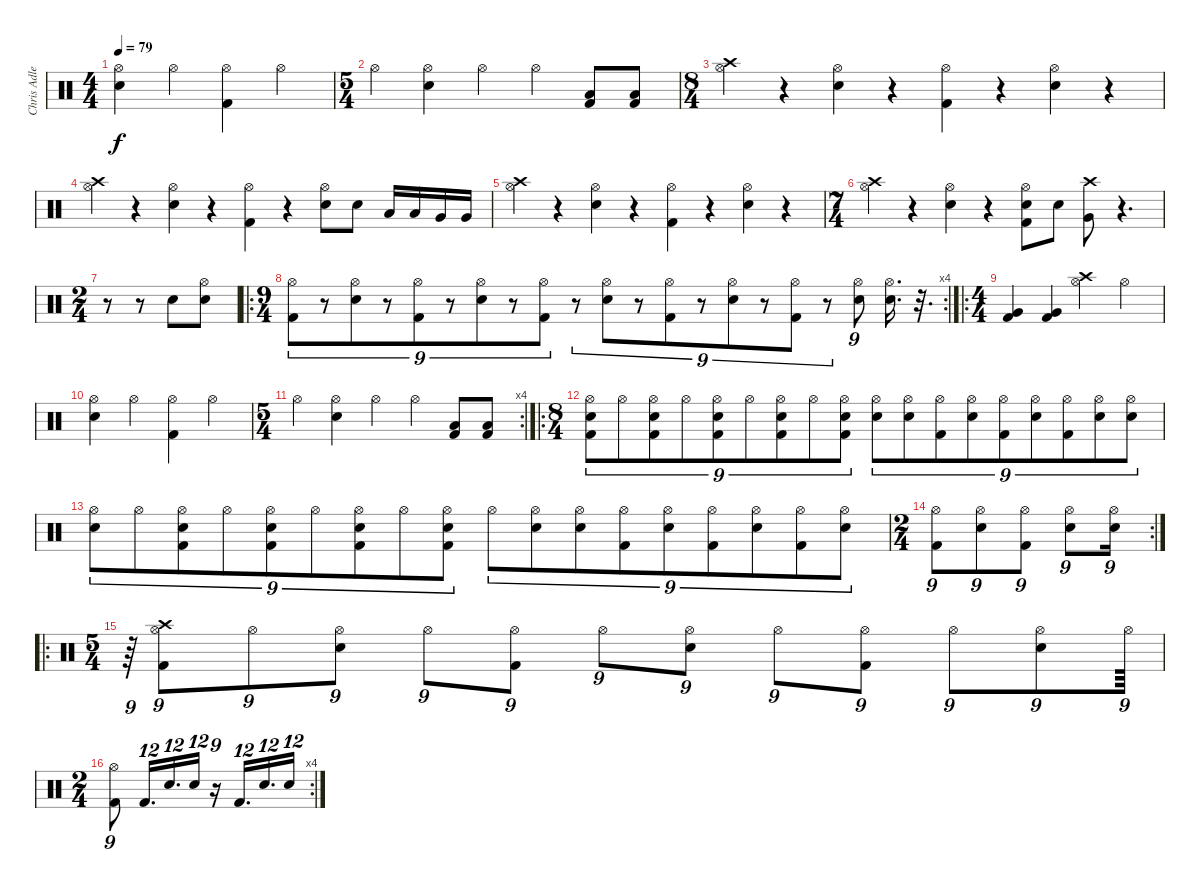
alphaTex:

\track ("Chris Adler" "Chris Adle") {instrument percussion}
\staff {score}
\articulation defaults
\ts (4 4)
\tempo 79
\clef neutral
\ks c
("Hi-Hat (open)" "Electric Snare (hit)").4{dy f} "Hi-Hat (open)".4 ("Hi-Hat (open)" "Kick (hit) 2").4 "Hi-Hat (open)".4 |
\ts (5 4)
"Hi-Hat (open)".4 ("Hi-Hat (open)" "Electric Snare (hit)").4 "Hi-Hat (open)".4 "Hi-Hat (open)".4 ("Low Floor Tom (hit)" "Kick (hit) 2").8 ("Low Floor Tom (hit)" "Kick (hit) 2").8 |
\ts (8 4)
("Hi-Hat (open)" "Crash high (hit)").4 r.4 ("Hi-Hat (open)" "Electric Snare (hit)").4 r.4 ("Hi-Hat (open)" "Kick (hit) 2").4 r.4 ("Hi-Hat (open)" "Electric Snare (hit)").4 r.4 |
("Hi-Hat (open)" "Crash high (hit)").4 r.4 ("Hi-Hat (open)" "Electric Snare (hit)").4 r.4 ("Hi-Hat (open)" "Kick (hit) 2").4 r.4 ("Hi-Hat (open)" "Electric Snare (hit)").8 "Electric Snare (hit)".8 "Low Floor Tom (hit)".16 "Low Floor Tom (hit)".16 "Very Low Tom (hit)".16 "Very Low Tom (hit)".16 |
("Hi-Hat (open)" "Crash high (hit)").4 r.4 ("Hi-Hat (open)" "Electric Snare (hit)").4 r.4 ("Hi-Hat (open)" "Kick (hit) 2").4 r.4 ("Hi-Hat (open)" "Electric Snare (hit)").4 r.4 |
\ts (7 4)
("Hi-Hat (open)" "Crash high (hit)").4 r.4 ("Hi-Hat (open)" "Electric Snare (hit)").4 r.4 ("Hi-Hat (open)" "Electric Snare (hit)" "Kick (hit) 2").8 "Electric Snare (hit)".8 ("Crash high (hit)" "Very Low Tom (hit)").8 r.4{d} |
\ts (2 4)
r.8 r.8 "Electric Snare (hit)".8 ("Hi-Hat (open)" "Electric Snare (hit)").8 |
\ro
\rc 4
\ts (9 4)
("Hi-Hat (open)" "Kick (hit) 2").8{tu (9 8)} r.8{tu (9 8)} ("Hi-Hat (open)" "Electric Snare (hit)").8{tu (9 8)} r.8{tu (9 8)} ("Hi-Hat (open)" "Kick (hit) 2").8{tu (9 8)} r.8{tu (9 8)} ("Hi-Hat (open)" "Electric Snare (hit)").8{tu (9 8)} r.8{tu (9 8)} ("Hi-Hat (open)" "Kick (hit) 2").8{tu (9 8)} r.8{tu (9 8)} ("Hi-Hat (open)" "Electric Snare (hit)").8{tu (9 8)} r.8{tu (9 8)} ("Hi-Hat (open)" "Kick (hit) 2").8{tu (9 8)} r.8{tu (9 8)} ("Hi-Hat (open)" "Electric Snare (hit)").8{tu (9 8)} r.8{tu (9 8)} ("Hi-Hat (open)" "Kick (hit) 2").8{tu (9 8)} r.8{tu (9 8)} ("Hi-Hat (open)" "Electric Snare (hit)").8{tu (9 8)} ("Hi-Hat (open)" "Electric Snare (hit)").16{d} r.32{d} |
\ro
\ts (4 4)
("Very Low Tom (hit)" "Kick (hit) 2").4 ("Very Low Tom (hit)" "Kick (hit) 2").4 ("Hi-Hat (open)" "Crash high (hit)").4 "Hi-Hat (open)".4 |
("Hi-Hat (open)" "Electric Snare (hit)").4 "Hi-Hat (open)".4 ("Hi-Hat (open)" "Kick (hit) 2").4 "Hi-Hat (open)".4 |
\rc 4
\ts (5 4)
"Hi-Hat (open)".4 ("Hi-Hat (open)" "Electric Snare (hit)").4 "Hi-Hat (open)".4 "Hi-Hat (open)".4 ("Low Floor Tom (hit)" "Kick (hit) 2").8 ("Low Floor Tom (hit)" "Kick (hit) 2").8 |
\ro
\ts (8 4)
("Hi-Hat (open)" "Electric Snare (hit)" "Kick (hit) 2").8{tu (9 8)} "Hi-Hat (open)".8{tu (9 8)} ("Hi-Hat (open)" "Electric Snare (hit)" "Kick (hit) 2").8{tu (9 8)} "Hi-Hat (open)".8{tu (9 8)} ("Hi-Hat (open)" "Electric Snare (hit)" "Kick (hit) 2").8{tu (9 8)} "Hi-Hat (open)".8{tu (9 8)} ("Hi-Hat (open)" "Electric Snare (hit)" "Kick (hit) 2").8{tu (9 8)} "Hi-Hat (open)".8{tu (9 8)} ("Hi-Hat (open)" "Electric Snare (hit)" "Kick (hit) 2").8{tu (9 8)} ("Hi-Hat (open)" "Electric Snare (hit)").8{tu (9 8)} ("Hi-Hat (open)" "Electric Snare (hit)").8{tu (9 8)} ("Hi-Hat (open)" "Kick (hit) 2").8{tu (9 8)} ("Hi-Hat (open)" "Electric Snare (hit)").8{tu (9 8)} ("Hi-Hat (open)" "Kick (hit) 2").8{tu (9 8)} ("Hi-Hat (open)" "Electric Snare (hit)").8{tu (9 8)} ("Hi-Hat (open)" "Kick (hit) 2").8{tu (9 8)} ("Hi-Hat (open)" "Electric Snare (hit)").8{tu (9 8)} ("Hi-Hat (open)" "Electric Snare (hit)").8{tu (9 8)} |
("Hi-Hat (open)" "Electric Snare (hit)").8{tu (9 8)} "Hi-Hat (open)".8{tu (9 8)} ("Hi-Hat (open)" "Electric Snare (hit)" "Kick (hit) 2").8{tu (9 8)} "Hi-Hat (open)".8{tu (9 8)} ("Hi-Hat (open)" "Electric Snare (hit)" "Kick (hit) 2").8{tu (9 8)} "Hi-Hat (open)".8{tu (9 8)} ("Hi-Hat (open)" "Electric Snare (hit)" "Kick (hit) 2").8{tu (9 8)} "Hi-Hat (open)".8{tu (9 8)} ("Hi-Hat (open)" "Electric Snare (hit)" "Kick (hit) 2").8{tu (9 8)} "Hi-Hat (open)".8{tu (9 8)} ("Hi-Hat (open)" "Electric Snare (hit)").8{tu (9 8)} ("Hi-Hat (open)" "Electric Snare (hit)").8{tu (9 8)} ("Hi-Hat (open)" "Kick (hit) 2").8{tu (9 8)} ("Hi-Hat (open)" "Electric Snare (hit)").8{tu (9 8)} ("Hi-Hat (open)" "Kick (hit) 2").8{tu (9 8)} ("Hi-Hat (open)" "Electric Snare (hit)").8{tu (9 8)} ("Hi-Hat (open)" "Kick (hit) 2").8{tu (9 8)} ("Hi-Hat (open)" "Electric Snare (hit)").8{tu (9 8)} |
\rc 2
\ts (2 4)
("Hi-Hat (open)" "Kick (hit) 2").8{tu (9 8)} ("Hi-Hat (open)" "Electric Snare (hit)").8{tu (9 8)} ("Hi-Hat (open)" "Kick (hit) 2").8{tu (9 8)} ("Hi-Hat (open)" "Electric Snare (hit)").8{tu (9 8)} ("Hi-Hat (open)" "Electric Snare (hit)").16{tu (9 8)} |
\ro
\ts (5 4)
r.64{tu (9 8)} ("Hi-Hat (open)" "Crash high (hit)" "Kick (hit) 2").8{tu (9 8)} "Hi-Hat (open)".8{tu (9 8)} ("Hi-Hat (open)" "Electric Snare (hit)").8{tu (9 8)} "Hi-Hat (open)".8{tu (9 8)} ("Hi-Hat (open)" "Kick (hit) 2").8{tu (9 8)} "Hi-Hat (open)".8{tu (9 8)} ("Hi-Hat (open)" "Electric Snare (hit)").8{tu (9 8)} "Hi-Hat (open)".8{tu (9 8)} ("Hi-Hat (open)" "Kick (hit) 2").8{tu (9 8)} "Hi-Hat (open)".8{tu (9 8)} ("Hi-Hat (open)" "Electric Snare (hit)").8{tu (9 8)} "Hi-Hat (open)".64{tu (9 8)} |
\rc 4
\ts (2 4)
("Hi-Hat (open)" "Kick (hit) 2").8{tu (9 8)} "Kick (hit) 2".16{d tu (12 8)} "Electric Snare (hit)".16{d tu (12 8)} "Electric Snare (hit)".16{tu (12 8)} r.16{tu (9 8)} "Kick (hit) 2".16{d tu (12 8)} "Electric Snare (hit)".16{d tu (12 8)} "Electric Snare (hit)".16{tu (12 8)}
